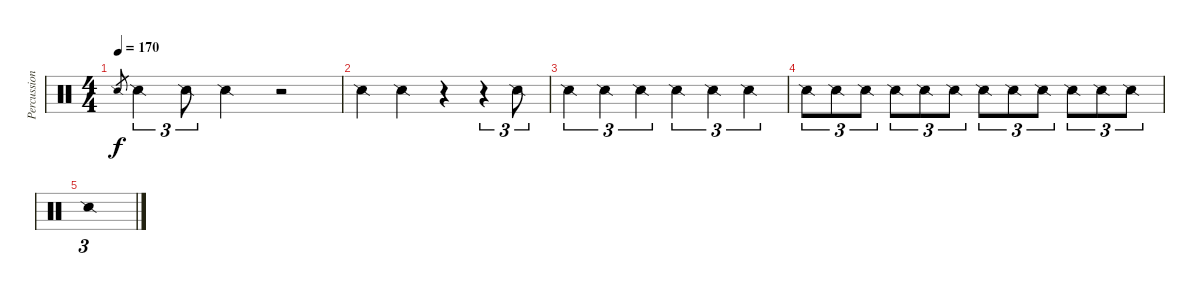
\track ("Percussion" "Percussion") {instrument percussion}
\staff {score}
\articulation defaults
\ts (4 4)
\tempo 170
\clef neutral
\ks c "Snare (side stick) 2".8{gr dy f} "Snare (side stick) 2".4{tu (3 2)} "Snare (side stick) 2".8{tu (3 2)} "Snare (side stick) 2".4
r.2 |
"Snare (side stick) 2".4 "Snare (side stick) 2".4 r.4 r.4{tu (3 2)} "Snare (side stick) 2".8{tu (3 2)} |
"Snare (side stick) 2".4{tu (3 2)} "Snare (side stick) 2".4{tu (3 2)} "Snare (side stick) 2".4{tu (3 2)} "Snare (side stick) 2".4{tu (3 2)} "Snare (side stick) 2".4{tu (3 2)} "Snare (side stick) 2".4{tu (3 2)} |
"Snare (side stick) 2".8{tu (3 2)} "Snare (side stick) 2".8{tu (3 2)} "Snare (side stick) 2".8{tu (3 2)} "Snare (side stick) 2".8{tu (3 2)} "Snare (side stick) 2".8{tu (3 2)} "Snare (side stick) 2".8{tu (3 2)} "Snare (side stick) 2".8{tu (3 2)} "Snare (side stick) 2".8{tu (3 2)} "Snare (side stick) 2".8{tu (3 2)} "Snare (side stick) 2".8{tu (3 2)} "Snare (side stick) 2".8{tu (3 2)} "Snare (side stick) 2".8{tu (3 2)} |
"Snare (side stick) 2".1{tu (3 2)}
